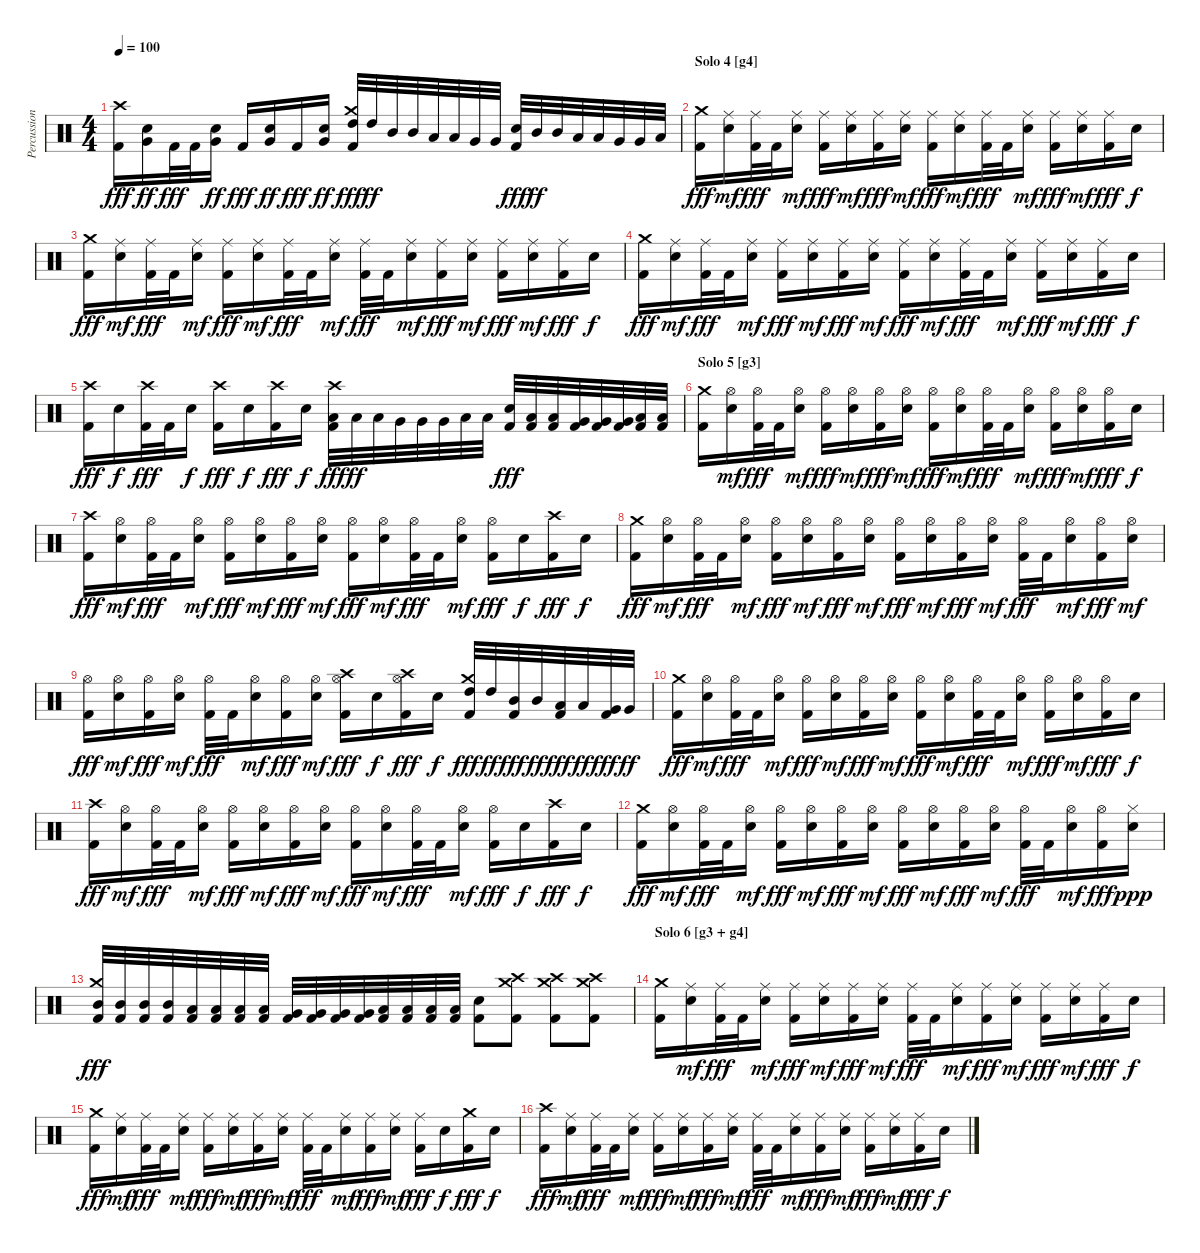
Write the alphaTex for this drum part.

\track ("Percussion" "Percussion") {instrument percussion}
\staff {score}
\articulation defaults
\ts (4 4)
\tempo 100
\clef neutral
\ks c
("Crash high (hit)" "Kick (hit) 2").16{dy fff} ("Very Low Tom (hit)" "Snare (hit) 2").16{dy ff} "Kick (hit) 2".32{dy fff} "Kick (hit) 2".32 ("Very Low Tom (hit)" "Snare (hit) 2").16{dy ff} "Kick (hit) 2".16{dy fff} ("Very Low Tom (hit)" "Snare (hit) 2").16{dy ff} "Kick (hit) 2".16{dy fff} ("Very Low Tom (hit)" "Snare (hit) 2").16{dy ff} ("Crash medium (hit)" "High Tom (hit)" "Kick (hit) 2").32{dy fff} "High Tom (hit)".32{dy ff} "Mid Tom (hit)".32 "Mid Tom (hit)".32 "Low Tom (hit)".32 "Low Tom (hit)".32 "Very Low Tom (hit)".32 "Very Low Tom (hit)".32 ("Snare (hit) 2" "Kick (hit) 2").32{dy fff} "Mid Tom (hit)".32{dy ff} "Mid Tom (hit)".32 "Low Tom (hit)".32 "Low Tom (hit)".32 "Very Low Tom (hit)".32 "Very Low Tom (hit)".32 "Low Floor Tom (hit)".32 |
\section ("" "Solo 4 [g4]")
("Crash medium (hit)" "Kick (hit) 2").16{dy fff} ("Ride (middle)" "Snare (hit) 2").16{dy mf} ("Ride (middle)" "Kick (hit) 2").32{dy fff} "Kick (hit) 2".32 ("Ride (middle)" "Snare (hit) 2").16{dy mf} ("Ride (middle)" "Kick (hit) 2").16{dy fff} ("Ride (middle)" "Snare (hit) 2").16{dy mf} ("Ride (middle)" "Kick (hit) 2").16{dy fff} ("Ride (middle)" "Snare (hit) 2").16{dy mf} ("Ride (middle)" "Kick (hit) 2").16{dy fff} ("Ride (middle)" "Snare (hit) 2").16{dy mf} ("Ride (middle)" "Kick (hit) 2").32{dy fff} "Kick (hit) 2".32 ("Ride (middle)" "Snare (hit) 2").16{dy mf} ("Ride (middle)" "Kick (hit) 2").16{dy fff} ("Ride (middle)" "Snare (hit) 2").16{dy mf} ("Ride (middle)" "Kick (hit) 2").16{dy fff} "Snare (hit) 2".16{dy f} |
("Crash medium (hit)" "Kick (hit) 2").16{dy fff} ("Ride (middle)" "Snare (hit) 2").16{dy mf} ("Ride (middle)" "Kick (hit) 2").32{dy fff} "Kick (hit) 2".32 ("Ride (middle)" "Snare (hit) 2").16{dy mf} ("Ride (middle)" "Kick (hit) 2").16{dy fff} ("Ride (middle)" "Snare (hit) 2").16{dy mf} ("Ride (middle)" "Kick (hit) 2").32{dy fff} "Kick (hit) 2".32 ("Ride (middle)" "Snare (hit) 2").16{dy mf} ("Ride (middle)" "Kick (hit) 2").32{dy fff} "Kick (hit) 2".32 ("Ride (middle)" "Snare (hit) 2").16{dy mf} ("Ride (middle)" "Kick (hit) 2").16{dy fff} ("Ride (middle)" "Snare (hit) 2").16{dy mf} ("Ride (middle)" "Kick (hit) 2").16{dy fff} ("Ride (middle)" "Snare (hit) 2").16{dy mf} ("Ride (middle)" "Kick (hit) 2").16{dy fff} "Snare (hit) 2".16{dy f} |
("Crash medium (hit)" "Kick (hit) 2").16{dy fff} ("Ride (middle)" "Snare (hit) 2").16{dy mf} ("Ride (middle)" "Kick (hit) 2").32{dy fff} "Kick (hit) 2".32 ("Ride (middle)" "Snare (hit) 2").16{dy mf} ("Ride (middle)" "Kick (hit) 2").16{dy fff} ("Ride (middle)" "Snare (hit) 2").16{dy mf} ("Ride (middle)" "Kick (hit) 2").16{dy fff} ("Ride (middle)" "Snare (hit) 2").16{dy mf} ("Ride (middle)" "Kick (hit) 2").16{dy fff} ("Ride (middle)" "Snare (hit) 2").16{dy mf} ("Ride (middle)" "Kick (hit) 2").32{dy fff} "Kick (hit) 2".32 ("Ride (middle)" "Snare (hit) 2").16{dy mf} ("Ride (middle)" "Kick (hit) 2").16{dy fff} ("Ride (middle)" "Snare (hit) 2").16{dy mf} ("Ride (middle)" "Kick (hit) 2").16{dy fff} "Snare (hit) 2".16{dy f} |
("Crash high (hit)" "Kick (hit) 2").16{dy fff} "Snare (hit) 2".16{dy f} ("Crash high (hit)" "Kick (hit) 2").32{dy fff} "Kick (hit) 2".32 "Snare (hit) 2".16{dy f} ("Crash high (hit)" "Kick (hit) 2").16{dy fff} "Snare (hit) 2".16{dy f} ("Crash high (hit)" "Kick (hit) 2").16{dy fff} "Snare (hit) 2".16{dy f} ("Crash high (hit)" "Low Tom (hit)" "Kick (hit) 2").32{dy fff} "Low Tom (hit)".32{dy ff} "Low Tom (hit)".32 "Very Low Tom (hit)".32 "Very Low Tom (hit)".32 "Very Low Tom (hit)".32 "Low Floor Tom (hit)".32 "Low Floor Tom (hit)".32 ("Snare (hit) 2" "Kick (hit) 2").32{dy fff} ("Low Tom (hit)" "Kick (hit) 2").32 ("Low Tom (hit)" "Kick (hit) 2").32 ("Very Low Tom (hit)" "Kick (hit) 2").32 ("Very Low Tom (hit)" "Kick (hit) 2").32 ("Very Low Tom (hit)" "Kick (hit) 2").32 ("Low Floor Tom (hit)" "Kick (hit) 2").32 ("Low Floor Tom (hit)" "Kick (hit) 2").32 |
\section ("" "Solo 5 [g3]")
("Crash medium (hit)" "Kick (hit) 2").16 ("Hi-Hat (open)" "Snare (hit) 2").16{dy mf} ("Hi-Hat (open)" "Kick (hit) 2").32{dy fff} "Kick (hit) 2".32 ("Hi-Hat (open)" "Snare (hit) 2").16{dy mf} ("Hi-Hat (open)" "Kick (hit) 2").16{dy fff} ("Hi-Hat (open)" "Snare (hit) 2").16{dy mf} ("Hi-Hat (open)" "Kick (hit) 2").16{dy fff} ("Hi-Hat (open)" "Snare (hit) 2").16{dy mf} ("Hi-Hat (open)" "Kick (hit) 2").16{dy fff} ("Hi-Hat (open)" "Snare (hit) 2").16{dy mf} ("Hi-Hat (open)" "Kick (hit) 2").32{dy fff} "Kick (hit) 2".32 ("Hi-Hat (open)" "Snare (hit) 2").16{dy mf} ("Hi-Hat (open)" "Kick (hit) 2").16{dy fff} ("Hi-Hat (open)" "Snare (hit) 2").16{dy mf} ("Hi-Hat (open)" "Kick (hit) 2").16{dy fff} "Snare (hit) 2".16{dy f} |
("Crash high (hit)" "Kick (hit) 2").16{dy fff} ("Hi-Hat (open)" "Snare (hit) 2").16{dy mf} ("Hi-Hat (open)" "Kick (hit) 2").32{dy fff} "Kick (hit) 2".32 ("Hi-Hat (open)" "Snare (hit) 2").16{dy mf} ("Hi-Hat (open)" "Kick (hit) 2").16{dy fff} ("Hi-Hat (open)" "Snare (hit) 2").16{dy mf} ("Hi-Hat (open)" "Kick (hit) 2").16{dy fff} ("Hi-Hat (open)" "Snare (hit) 2").16{dy mf} ("Hi-Hat (open)" "Kick (hit) 2").16{dy fff} ("Hi-Hat (open)" "Snare (hit) 2").16{dy mf} ("Hi-Hat (open)" "Kick (hit) 2").32{dy fff} "Kick (hit) 2".32 ("Hi-Hat (open)" "Snare (hit) 2").16{dy mf} ("Hi-Hat (open)" "Kick (hit) 2").16{dy fff} "Snare (hit) 2".16{dy f} ("Crash high (hit)" "Kick (hit) 2").16{dy fff} "Snare (hit) 2".16{dy f} |
("Crash medium (hit)" "Kick (hit) 2").16{dy fff} ("Hi-Hat (open)" "Snare (hit) 2").16{dy mf} ("Hi-Hat (open)" "Kick (hit) 2").32{dy fff} "Kick (hit) 2".32 ("Hi-Hat (open)" "Snare (hit) 2").16{dy mf} ("Hi-Hat (open)" "Kick (hit) 2").16{dy fff} ("Hi-Hat (open)" "Snare (hit) 2").16{dy mf} ("Hi-Hat (open)" "Kick (hit) 2").16{dy fff} ("Hi-Hat (open)" "Snare (hit) 2").16{dy mf} ("Hi-Hat (open)" "Kick (hit) 2").16{dy fff} ("Hi-Hat (open)" "Snare (hit) 2").16{dy mf} ("Hi-Hat (open)" "Kick (hit) 2").16{dy fff} ("Hi-Hat (open)" "Snare (hit) 2").16{dy mf} ("Hi-Hat (open)" "Kick (hit) 2").32{dy fff} "Kick (hit) 2".32 ("Hi-Hat (open)" "Snare (hit) 2").16{dy mf} ("Hi-Hat (open)" "Kick (hit) 2").16{dy fff} ("Hi-Hat (open)" "Snare (hit) 2").16{dy mf} |
("Hi-Hat (open)" "Kick (hit) 2").16{dy fff} ("Hi-Hat (open)" "Snare (hit) 2").16{dy mf} ("Hi-Hat (open)" "Kick (hit) 2").16{dy fff} ("Hi-Hat (open)" "Snare (hit) 2").16{dy mf} ("Hi-Hat (open)" "Kick (hit) 2").32{dy fff} "Kick (hit) 2".32 ("Hi-Hat (open)" "Snare (hit) 2").16{dy mf} ("Hi-Hat (open)" "Kick (hit) 2").16{dy fff} ("Hi-Hat (open)" "Snare (hit) 2").16{dy mf} ("Crash high (hit)" "Hi-Hat (open)" "Kick (hit) 2").16{dy fff} "Snare (hit) 2".16{dy f} ("Crash high (hit)" "Hi-Hat (open)" "Kick (hit) 2").16{dy fff} "Snare (hit) 2".16{dy f} ("Crash medium (hit)" "High Tom (hit)" "Kick (hit) 2").32{dy fff} "High Tom (hit)".32{dy ff} ("Mid Tom (hit)" "Kick (hit) 2").32{dy fff} "Mid Tom (hit)".32{dy ff} ("Low Tom (hit)" "Kick (hit) 2").32{dy fff} "Low Tom (hit)".32{dy ff} ("Very Low Tom (hit)" "Kick (hit) 2").32{dy fff} "Very Low Tom (hit)".32{dy ff} |
("Crash medium (hit)" "Kick (hit) 2").16{dy fff} ("Hi-Hat (open)" "Snare (hit) 2").16{dy mf} ("Hi-Hat (open)" "Kick (hit) 2").32{dy fff} "Kick (hit) 2".32 ("Hi-Hat (open)" "Snare (hit) 2").16{dy mf} ("Hi-Hat (open)" "Kick (hit) 2").16{dy fff} ("Hi-Hat (open)" "Snare (hit) 2").16{dy mf} ("Hi-Hat (open)" "Kick (hit) 2").16{dy fff} ("Hi-Hat (open)" "Snare (hit) 2").16{dy mf} ("Hi-Hat (open)" "Kick (hit) 2").16{dy fff} ("Hi-Hat (open)" "Snare (hit) 2").16{dy mf} ("Hi-Hat (open)" "Kick (hit) 2").32{dy fff} "Kick (hit) 2".32 ("Hi-Hat (open)" "Snare (hit) 2").16{dy mf} ("Hi-Hat (open)" "Kick (hit) 2").16{dy fff} ("Hi-Hat (open)" "Snare (hit) 2").16{dy mf} ("Hi-Hat (open)" "Kick (hit) 2").16{dy fff} "Snare (hit) 2".16{dy f} |
("Crash high (hit)" "Kick (hit) 2").16{dy fff} ("Hi-Hat (open)" "Snare (hit) 2").16{dy mf} ("Hi-Hat (open)" "Kick (hit) 2").32{dy fff} "Kick (hit) 2".32 ("Hi-Hat (open)" "Snare (hit) 2").16{dy mf} ("Hi-Hat (open)" "Kick (hit) 2").16{dy fff} ("Hi-Hat (open)" "Snare (hit) 2").16{dy mf} ("Hi-Hat (open)" "Kick (hit) 2").16{dy fff} ("Hi-Hat (open)" "Snare (hit) 2").16{dy mf} ("Hi-Hat (open)" "Kick (hit) 2").16{dy fff} ("Hi-Hat (open)" "Snare (hit) 2").16{dy mf} ("Hi-Hat (open)" "Kick (hit) 2").32{dy fff} "Kick (hit) 2".32 ("Hi-Hat (open)" "Snare (hit) 2").16{dy mf} ("Hi-Hat (open)" "Kick (hit) 2").16{dy fff} "Snare (hit) 2".16{dy f} ("Crash high (hit)" "Kick (hit) 2").16{dy fff} "Snare (hit) 2".16{dy f} |
("Crash medium (hit)" "Kick (hit) 2").16{dy fff} ("Hi-Hat (open)" "Snare (hit) 2").16{dy mf} ("Hi-Hat (open)" "Kick (hit) 2").32{dy fff} "Kick (hit) 2".32 ("Hi-Hat (open)" "Snare (hit) 2").16{dy mf} ("Hi-Hat (open)" "Kick (hit) 2").16{dy fff} ("Hi-Hat (open)" "Snare (hit) 2").16{dy mf} ("Hi-Hat (open)" "Kick (hit) 2").16{dy fff} ("Hi-Hat (open)" "Snare (hit) 2").16{dy mf} ("Hi-Hat (open)" "Kick (hit) 2").16{dy fff} ("Hi-Hat (open)" "Snare (hit) 2").16{dy mf} ("Hi-Hat (open)" "Kick (hit) 2").16{dy fff} ("Hi-Hat (open)" "Snare (hit) 2").16{dy mf} ("Hi-Hat (open)" "Kick (hit) 2").32{dy fff} "Kick (hit) 2".32 ("Hi-Hat (open)" "Snare (hit) 2").16{dy mf} ("Hi-Hat (open)" "Kick (hit) 2").16{dy fff} ("Hi-Hat (closed)" "Snare (hit) 2").16{dy ppp} |
("Crash medium (hit)" "Mid Tom (hit)" "Kick (hit) 2").32{dy fff} ("Mid Tom (hit)" "Kick (hit) 2").32 ("Mid Tom (hit)" "Kick (hit) 2").32 ("Mid Tom (hit)" "Kick (hit) 2").32 ("Low Tom (hit)" "Kick (hit) 2").32 ("Low Tom (hit)" "Kick (hit) 2").32 ("Low Tom (hit)" "Kick (hit) 2").32 ("Low Tom (hit)" "Kick (hit) 2").32 ("Very Low Tom (hit)" "Kick (hit) 2").32 ("Very Low Tom (hit)" "Kick (hit) 2").32 ("Very Low Tom (hit)" "Kick (hit) 2").32 ("Very Low Tom (hit)" "Kick (hit) 2").32 ("Low Floor Tom (hit)" "Kick (hit) 2").32 ("Low Floor Tom (hit)" "Kick (hit) 2").32 ("Low Floor Tom (hit)" "Kick (hit) 2").32 ("Low Floor Tom (hit)" "Kick (hit) 2").32 ("Snare (hit) 2" "Kick (hit) 2").8 ("Crash medium (hit)" "Crash high (hit)" "Kick (hit) 2").8 ("Crash high (hit)" "Crash medium (hit)" "Kick (hit) 2").8 ("Crash medium (hit)" "Crash high (hit)" "Kick (hit) 2").8 |
\section ("" "Solo 6 [g3 + g4]")
("Crash medium (hit)" "Kick (hit) 2").16 ("Ride (middle)" "Snare (hit) 2").16{dy mf} ("Ride (middle)" "Kick (hit) 2").32{dy fff} "Kick (hit) 2".32 ("Ride (middle)" "Snare (hit) 2").16{dy mf} ("Ride (middle)" "Kick (hit) 2").16{dy fff} ("Ride (middle)" "Snare (hit) 2").16{dy mf} ("Ride (middle)" "Kick (hit) 2").16{dy fff} ("Ride (middle)" "Snare (hit) 2").16{dy mf} ("Ride (middle)" "Kick (hit) 2").32{dy fff} "Kick (hit) 2".32 ("Ride (middle)" "Snare (hit) 2").16{dy mf} ("Ride (middle)" "Kick (hit) 2").16{dy fff} ("Ride (middle)" "Snare (hit) 2").16{dy mf} ("Ride (middle)" "Kick (hit) 2").16{dy fff} ("Ride (middle)" "Snare (hit) 2").16{dy mf} ("Ride (middle)" "Kick (hit) 2").16{dy fff} "Snare (hit) 2".16{dy f} |
("Crash medium (hit)" "Kick (hit) 2").16{dy fff} ("Ride (middle)" "Snare (hit) 2").16{dy mf} ("Ride (middle)" "Kick (hit) 2").32{dy fff} "Kick (hit) 2".32 ("Ride (middle)" "Snare (hit) 2").16{dy mf} ("Ride (middle)" "Kick (hit) 2").16{dy fff} ("Ride (middle)" "Snare (hit) 2").16{dy mf} ("Ride (middle)" "Kick (hit) 2").16{dy fff} ("Ride (middle)" "Snare (hit) 2").16{dy mf} ("Ride (middle)" "Kick (hit) 2").32{dy fff} "Kick (hit) 2".32 ("Ride (middle)" "Snare (hit) 2").16{dy mf} ("Ride (middle)" "Kick (hit) 2").16{dy fff} ("Ride (middle)" "Snare (hit) 2").16{dy mf} ("Ride (middle)" "Kick (hit) 2").16{dy fff} "Snare (hit) 2".16{dy f} ("Crash medium (hit)" "Kick (hit) 2").16{dy fff} "Snare (hit) 2".16{dy f} |
("Crash high (hit)" "Kick (hit) 2").16{dy fff} ("Ride (middle)" "Snare (hit) 2").16{dy mf} ("Ride (middle)" "Kick (hit) 2").32{dy fff} "Kick (hit) 2".32 ("Ride (middle)" "Snare (hit) 2").16{dy mf} ("Ride (middle)" "Kick (hit) 2").16{dy fff} ("Ride (middle)" "Snare (hit) 2").16{dy mf} ("Ride (middle)" "Kick (hit) 2").16{dy fff} ("Ride (middle)" "Snare (hit) 2").16{dy mf} ("Ride (middle)" "Kick (hit) 2").32{dy fff} "Kick (hit) 2".32 ("Ride (middle)" "Snare (hit) 2").16{dy mf} ("Ride (middle)" "Kick (hit) 2").16{dy fff} ("Ride (middle)" "Snare (hit) 2").16{dy mf} ("Ride (middle)" "Kick (hit) 2").16{dy fff} ("Ride (middle)" "Snare (hit) 2").16{dy mf} ("Ride (middle)" "Kick (hit) 2").16{dy fff} "Snare (hit) 2".16{dy f}
